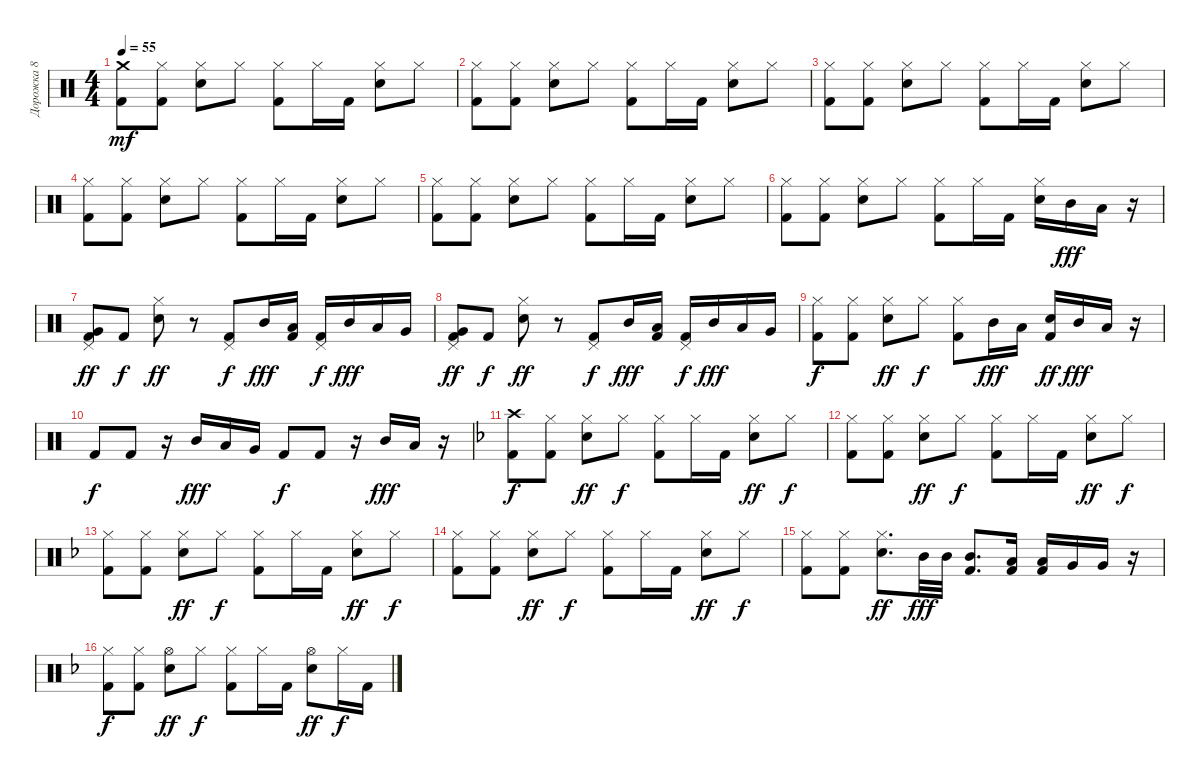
\track ("Дорожка 8" "Дорожка 8") {instrument percussion}
\staff {score}
\articulation defaults
\ts (4 4)
\tempo 55
\clef neutral
\ks aminor
("Crash medium (hit)" "Kick (hit) 2").8{dy mf} ("Hi-Hat (closed)" "Kick (hit) 2").8 ("Hi-Hat (closed)" "Snare (hit) 2").8 "Hi-Hat (closed)".8 ("Hi-Hat (closed)" "Kick (hit) 2").8 "Hi-Hat (closed)".16 "Kick (hit) 2".16 ("Hi-Hat (closed)" "Snare (hit) 2").8 "Hi-Hat (closed)".8 |
("Hi-Hat (closed)" "Kick (hit) 2").8 ("Hi-Hat (closed)" "Kick (hit) 2").8 ("Hi-Hat (closed)" "Snare (hit) 2").8 "Hi-Hat (closed)".8 ("Hi-Hat (closed)" "Kick (hit) 2").8 "Hi-Hat (closed)".16 "Kick (hit) 2".16 ("Hi-Hat (closed)" "Snare (hit) 2").8 "Hi-Hat (closed)".8 |
("Hi-Hat (closed)" "Kick (hit) 2").8 ("Hi-Hat (closed)" "Kick (hit) 2").8 ("Hi-Hat (closed)" "Snare (hit) 2").8 "Hi-Hat (closed)".8 ("Hi-Hat (closed)" "Kick (hit) 2").8 "Hi-Hat (closed)".16 "Kick (hit) 2".16 ("Hi-Hat (closed)" "Snare (hit) 2").8 "Hi-Hat (closed)".8 |
("Hi-Hat (closed)" "Kick (hit) 2").8 ("Hi-Hat (closed)" "Kick (hit) 2").8 ("Hi-Hat (closed)" "Snare (hit) 2").8 "Hi-Hat (closed)".8 ("Hi-Hat (closed)" "Kick (hit) 2").8 "Hi-Hat (closed)".16 "Kick (hit) 2".16 ("Hi-Hat (closed)" "Snare (hit) 2").8 "Hi-Hat (closed)".8 |
("Hi-Hat (closed)" "Kick (hit) 2").8 ("Hi-Hat (closed)" "Kick (hit) 2").8 ("Hi-Hat (closed)" "Snare (hit) 2").8 "Hi-Hat (closed)".8 ("Hi-Hat (closed)" "Kick (hit) 2").8 "Hi-Hat (closed)".16 "Kick (hit) 2".16 ("Hi-Hat (closed)" "Snare (hit) 2").8 "Hi-Hat (closed)".8 |
("Hi-Hat (closed)" "Kick (hit) 2").8 ("Hi-Hat (closed)" "Kick (hit) 2").8 ("Hi-Hat (closed)" "Snare (hit) 2").8 "Hi-Hat (closed)".8 ("Hi-Hat (closed)" "Kick (hit) 2").8 "Hi-Hat (closed)".16 "Kick (hit) 2".16 ("Hi-Hat (closed)" "Snare (hit) 2").16 "Mid Tom (hit)".16{dy fff} "Low Tom (hit)".16 r.16 |
("Pedal Hi-Hat (hit)" "Very Low Tom (hit)" "Kick (hit) 2").8{dy ff} "Kick (hit) 2".8{dy f} ("Hi-Hat (closed)" "Snare (hit) 2").8{dy ff} r.8 ("Pedal Hi-Hat (hit)" "Kick (hit) 2").8{dy f} "Mid Tom (hit)".16{dy fff} ("Low Tom (hit)" "Kick (hit) 2").16 ("Pedal Hi-Hat (hit)" "Kick (hit) 2").16{dy f} "Mid Tom (hit)".16{dy fff} "Low Tom (hit)".16 "Very Low Tom (hit)".16 |
("Pedal Hi-Hat (hit)" "Very Low Tom (hit)" "Kick (hit) 2").8{dy ff} "Kick (hit) 2".8{dy f} ("Hi-Hat (closed)" "Snare (hit) 2").8{dy ff} r.8 ("Pedal Hi-Hat (hit)" "Kick (hit) 2").8{dy f} "Mid Tom (hit)".16{dy fff} ("Low Tom (hit)" "Kick (hit) 2").16 ("Pedal Hi-Hat (hit)" "Kick (hit) 2").16{dy f} "Mid Tom (hit)".16{dy fff} "Low Tom (hit)".16 "Very Low Tom (hit)".16 |
("Hi-Hat (closed)" "Kick (hit) 2").8{dy f} ("Hi-Hat (closed)" "Kick (hit) 2").8 ("Hi-Hat (closed)" "Snare (hit) 2").8{dy ff} "Hi-Hat (closed)".8{dy f} ("Hi-Hat (closed)" "Kick (hit) 2").8 "Mid Tom (hit)".16{dy fff} "Low Tom (hit)".16 ("Snare (hit) 2" "Kick (hit) 2").16{dy ff} "Mid Tom (hit)".16{dy fff} "Low Tom (hit)".16 r.16 |
"Kick (hit) 2".8{dy f} "Kick (hit) 2".8 r.16 "Mid Tom (hit)".16{dy fff} "Low Tom (hit)".16 "Very Low Tom (hit)".16 "Kick (hit) 2".8{dy f} "Kick (hit) 2".8 r.16 "Mid Tom (hit)".16{dy fff} "Low Tom (hit)".16 r.16 |
\ks dminor
("Crash high (hit)" "Kick (hit) 2").8{dy f} ("Hi-Hat (closed)" "Kick (hit) 2").8 ("Hi-Hat (closed)" "Snare (hit) 2").8{dy ff} "Hi-Hat (closed)".8{dy f} ("Hi-Hat (closed)" "Kick (hit) 2").8 "Hi-Hat (closed)".16 "Kick (hit) 2".16 ("Hi-Hat (closed)" "Snare (hit) 2").8{dy ff} "Hi-Hat (closed)".8{dy f} |
("Hi-Hat (closed)" "Kick (hit) 2").8 ("Hi-Hat (closed)" "Kick (hit) 2").8 ("Hi-Hat (closed)" "Snare (hit) 2").8{dy ff} "Hi-Hat (closed)".8{dy f} ("Hi-Hat (closed)" "Kick (hit) 2").8 "Hi-Hat (closed)".16 "Kick (hit) 2".16 ("Hi-Hat (closed)" "Snare (hit) 2").8{dy ff} "Hi-Hat (closed)".8{dy f} |
("Hi-Hat (closed)" "Kick (hit) 2").8 ("Hi-Hat (closed)" "Kick (hit) 2").8 ("Hi-Hat (closed)" "Snare (hit) 2").8{dy ff} "Hi-Hat (closed)".8{dy f} ("Hi-Hat (closed)" "Kick (hit) 2").8 "Hi-Hat (closed)".16 "Kick (hit) 2".16 ("Hi-Hat (closed)" "Snare (hit) 2").8{dy ff} "Hi-Hat (closed)".8{dy f} |
("Hi-Hat (closed)" "Kick (hit) 2").8 ("Hi-Hat (closed)" "Kick (hit) 2").8 ("Hi-Hat (closed)" "Snare (hit) 2").8{dy ff} "Hi-Hat (closed)".8{dy f} ("Hi-Hat (closed)" "Kick (hit) 2").8 "Hi-Hat (closed)".16 "Kick (hit) 2".16 ("Hi-Hat (closed)" "Snare (hit) 2").8{dy ff} "Hi-Hat (closed)".8{dy f} |
("Hi-Hat (closed)" "Kick (hit) 2").8 ("Hi-Hat (closed)" "Kick (hit) 2").8 ("Hi-Hat (closed)" "Snare (hit) 2").8{d dy ff} "Mid Tom (hit)".32{dy fff} "Mid Tom (hit)".32 ("Mid Tom (hit)" "Kick (hit) 2").8{d} ("Low Tom (hit)" "Kick (hit) 2").16 ("Low Tom (hit)" "Kick (hit) 2").16 "Very Low Tom (hit)".16 "Very Low Tom (hit)".16 r.16 |
("Hi-Hat (closed)" "Kick (hit) 2").8{dy f} ("Hi-Hat (closed)" "Kick (hit) 2").8 ("Hi-Hat (open)" "Snare (hit) 2").8{dy ff} "Hi-Hat (closed)".8{dy f} ("Hi-Hat (closed)" "Kick (hit) 2").8 "Hi-Hat (closed)".16 "Kick (hit) 2".16 ("Hi-Hat (open)" "Snare (hit) 2").8{dy ff} "Hi-Hat (closed)".16{dy f} "Kick (hit) 2".16
